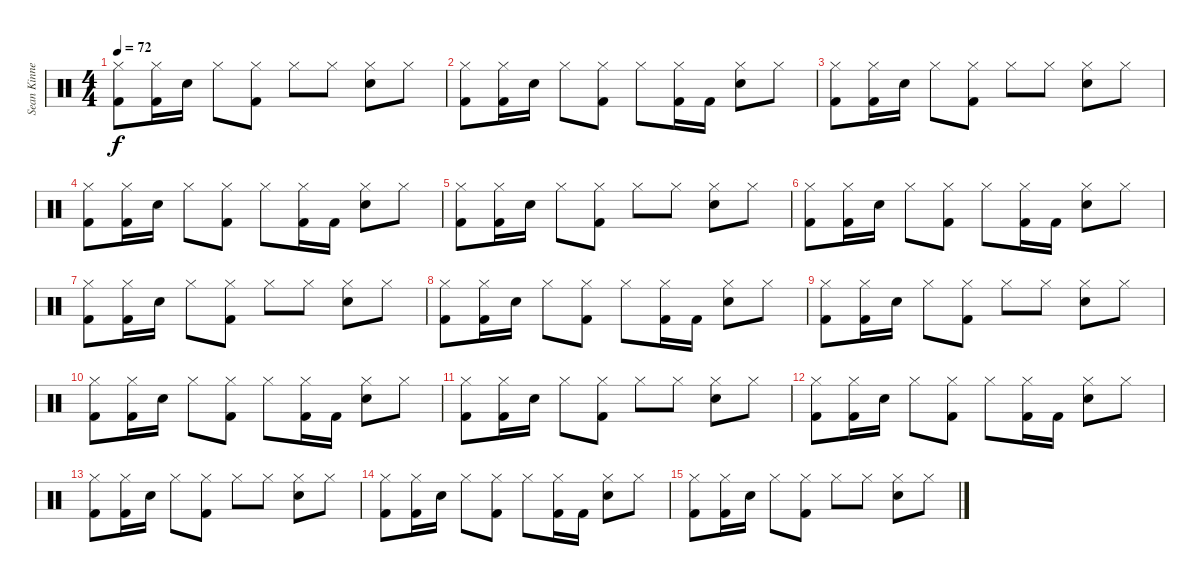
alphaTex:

\track ("Sean Kinney - Drums" "Sean Kinne") {instrument percussion}
\staff {score}
\articulation defaults
\ts (4 4)
\tempo 72
\clef neutral
\ks c
("Hi-Hat (closed)" "Kick (hit) 2").8{dy f} ("Hi-Hat (closed)" "Kick (hit) 2").16 "Electric Snare (hit)".16 "Hi-Hat (closed)".8 ("Hi-Hat (closed)" "Kick (hit) 2").8 "Hi-Hat (closed)".8 "Hi-Hat (closed)".8 ("Hi-Hat (closed)" "Electric Snare (hit)").8 "Hi-Hat (closed)".8 |
("Hi-Hat (closed)" "Kick (hit) 2").8 ("Hi-Hat (closed)" "Kick (hit) 2").16 "Electric Snare (hit)".16 "Hi-Hat (closed)".8 ("Hi-Hat (closed)" "Kick (hit) 2").8 "Hi-Hat (closed)".8 ("Hi-Hat (closed)" "Kick (hit) 2").16 "Kick (hit) 2".16 ("Hi-Hat (closed)" "Electric Snare (hit)").8 "Hi-Hat (closed)".8 |
("Hi-Hat (closed)" "Kick (hit) 2").8 ("Hi-Hat (closed)" "Kick (hit) 2").16 "Electric Snare (hit)".16 "Hi-Hat (closed)".8 ("Hi-Hat (closed)" "Kick (hit) 2").8 "Hi-Hat (closed)".8 "Hi-Hat (closed)".8 ("Hi-Hat (closed)" "Electric Snare (hit)").8 "Hi-Hat (closed)".8 |
("Hi-Hat (closed)" "Kick (hit) 2").8 ("Hi-Hat (closed)" "Kick (hit) 2").16 "Electric Snare (hit)".16 "Hi-Hat (closed)".8 ("Hi-Hat (closed)" "Kick (hit) 2").8 "Hi-Hat (closed)".8 ("Hi-Hat (closed)" "Kick (hit) 2").16 "Kick (hit) 2".16 ("Hi-Hat (closed)" "Electric Snare (hit)").8 "Hi-Hat (closed)".8 |
("Hi-Hat (closed)" "Kick (hit) 2").8 ("Hi-Hat (closed)" "Kick (hit) 2").16 "Electric Snare (hit)".16 "Hi-Hat (closed)".8 ("Hi-Hat (closed)" "Kick (hit) 2").8 "Hi-Hat (closed)".8 "Hi-Hat (closed)".8 ("Hi-Hat (closed)" "Electric Snare (hit)").8 "Hi-Hat (closed)".8 |
("Hi-Hat (closed)" "Kick (hit) 2").8 ("Hi-Hat (closed)" "Kick (hit) 2").16 "Electric Snare (hit)".16 "Hi-Hat (closed)".8 ("Hi-Hat (closed)" "Kick (hit) 2").8 "Hi-Hat (closed)".8 ("Hi-Hat (closed)" "Kick (hit) 2").16 "Kick (hit) 2".16 ("Hi-Hat (closed)" "Electric Snare (hit)").8 "Hi-Hat (closed)".8 |
("Hi-Hat (closed)" "Kick (hit) 2").8 ("Hi-Hat (closed)" "Kick (hit) 2").16 "Electric Snare (hit)".16 "Hi-Hat (closed)".8 ("Hi-Hat (closed)" "Kick (hit) 2").8 "Hi-Hat (closed)".8 "Hi-Hat (closed)".8 ("Hi-Hat (closed)" "Electric Snare (hit)").8 "Hi-Hat (closed)".8 |
("Hi-Hat (closed)" "Kick (hit) 2").8 ("Hi-Hat (closed)" "Kick (hit) 2").16 "Electric Snare (hit)".16 "Hi-Hat (closed)".8 ("Hi-Hat (closed)" "Kick (hit) 2").8 "Hi-Hat (closed)".8 ("Hi-Hat (closed)" "Kick (hit) 2").16 "Kick (hit) 2".16 ("Hi-Hat (closed)" "Electric Snare (hit)").8 "Hi-Hat (closed)".8 |
("Hi-Hat (closed)" "Kick (hit) 2").8 ("Hi-Hat (closed)" "Kick (hit) 2").16 "Electric Snare (hit)".16 "Hi-Hat (closed)".8 ("Hi-Hat (closed)" "Kick (hit) 2").8 "Hi-Hat (closed)".8 "Hi-Hat (closed)".8 ("Hi-Hat (closed)" "Electric Snare (hit)").8 "Hi-Hat (closed)".8 |
("Hi-Hat (closed)" "Kick (hit) 2").8 ("Hi-Hat (closed)" "Kick (hit) 2").16 "Electric Snare (hit)".16 "Hi-Hat (closed)".8 ("Hi-Hat (closed)" "Kick (hit) 2").8 "Hi-Hat (closed)".8 ("Hi-Hat (closed)" "Kick (hit) 2").16 "Kick (hit) 2".16 ("Hi-Hat (closed)" "Electric Snare (hit)").8 "Hi-Hat (closed)".8 |
("Hi-Hat (closed)" "Kick (hit) 2").8 ("Hi-Hat (closed)" "Kick (hit) 2").16 "Electric Snare (hit)".16 "Hi-Hat (closed)".8 ("Hi-Hat (closed)" "Kick (hit) 2").8 "Hi-Hat (closed)".8 "Hi-Hat (closed)".8 ("Hi-Hat (closed)" "Electric Snare (hit)").8 "Hi-Hat (closed)".8 |
("Hi-Hat (closed)" "Kick (hit) 2").8{volume 8} ("Hi-Hat (closed)" "Kick (hit) 2").16 "Electric Snare (hit)".16 "Hi-Hat (closed)".8 ("Hi-Hat (closed)" "Kick (hit) 2").8 "Hi-Hat (closed)".8 ("Hi-Hat (closed)" "Kick (hit) 2").16 "Kick (hit) 2".16 ("Hi-Hat (closed)" "Electric Snare (hit)").8 "Hi-Hat (closed)".8 |
("Hi-Hat (closed)" "Kick (hit) 2").8 ("Hi-Hat (closed)" "Kick (hit) 2").16 "Electric Snare (hit)".16 "Hi-Hat (closed)".8 ("Hi-Hat (closed)" "Kick (hit) 2").8 "Hi-Hat (closed)".8 "Hi-Hat (closed)".8 ("Hi-Hat (closed)" "Electric Snare (hit)").8 "Hi-Hat (closed)".8 |
("Hi-Hat (closed)" "Kick (hit) 2").8{volume 0} ("Hi-Hat (closed)" "Kick (hit) 2").16 "Electric Snare (hit)".16 "Hi-Hat (closed)".8 ("Hi-Hat (closed)" "Kick (hit) 2").8 "Hi-Hat (closed)".8 ("Hi-Hat (closed)" "Kick (hit) 2").16 "Kick (hit) 2".16 ("Hi-Hat (closed)" "Electric Snare (hit)").8 "Hi-Hat (closed)".8 |
("Hi-Hat (closed)" "Kick (hit) 2").8 ("Hi-Hat (closed)" "Kick (hit) 2").16 "Electric Snare (hit)".16 "Hi-Hat (closed)".8 ("Hi-Hat (closed)" "Kick (hit) 2").8 "Hi-Hat (closed)".8 "Hi-Hat (closed)".8 ("Hi-Hat (closed)" "Electric Snare (hit)").8 "Hi-Hat (closed)".8
